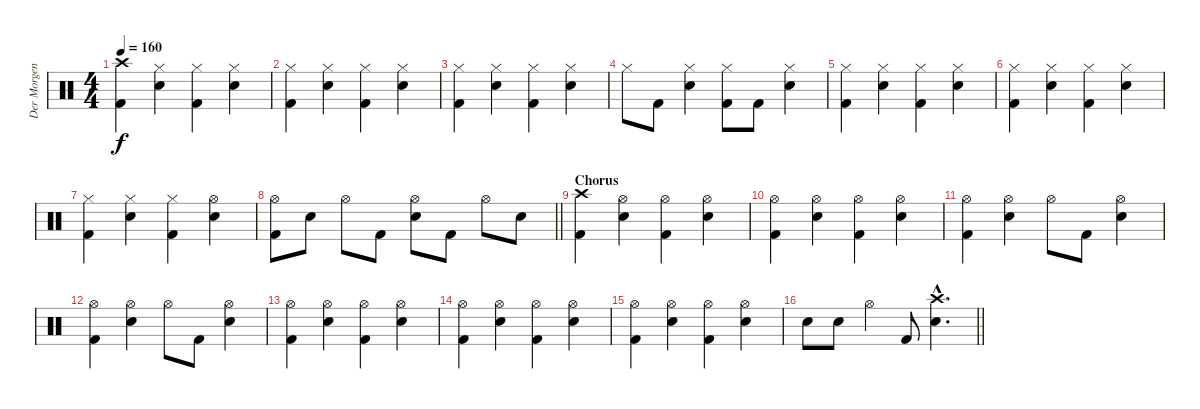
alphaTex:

\track ("Der Morgenstern" "Der Morgen") {instrument percussion}
\staff {score}
\articulation defaults
\ts (4 4)
\tempo 160
\clef neutral
\ks c
("Crash high (hit)" "Kick (hit) 2").4{dy f} ("Hi-Hat (closed)" "Electric Snare (hit)").4 ("Hi-Hat (closed)" "Kick (hit) 2").4 ("Hi-Hat (closed)" "Electric Snare (hit)").4 |
("Hi-Hat (closed)" "Kick (hit) 2").4 ("Hi-Hat (closed)" "Electric Snare (hit)").4 ("Hi-Hat (closed)" "Kick (hit) 2").4 ("Hi-Hat (closed)" "Electric Snare (hit)").4 |
("Hi-Hat (closed)" "Kick (hit) 2").4 ("Hi-Hat (closed)" "Electric Snare (hit)").4 ("Hi-Hat (closed)" "Kick (hit) 2").4 ("Hi-Hat (closed)" "Electric Snare (hit)").4 |
"Hi-Hat (closed)".8 "Kick (hit) 2".8 ("Hi-Hat (closed)" "Electric Snare (hit)").4 ("Hi-Hat (closed)" "Kick (hit) 2").8 "Kick (hit) 2".8 ("Hi-Hat (closed)" "Electric Snare (hit)").4 |
("Hi-Hat (closed)" "Kick (hit) 2").4 ("Hi-Hat (closed)" "Electric Snare (hit)").4 ("Hi-Hat (closed)" "Kick (hit) 2").4 ("Hi-Hat (closed)" "Electric Snare (hit)").4 |
("Hi-Hat (closed)" "Kick (hit) 2").4 ("Hi-Hat (closed)" "Electric Snare (hit)").4 ("Hi-Hat (closed)" "Kick (hit) 2").4 ("Hi-Hat (closed)" "Electric Snare (hit)").4 |
("Hi-Hat (closed)" "Kick (hit) 2").4 ("Hi-Hat (closed)" "Electric Snare (hit)").4 ("Hi-Hat (closed)" "Kick (hit) 2").4 ("Hi-Hat (open)" "Electric Snare (hit)").4 |
\barLineRight lightlight
("Hi-Hat (open)" "Kick (hit) 2").8 "Electric Snare (hit)".8 "Hi-Hat (open)".8 "Kick (hit) 2".8 ("Hi-Hat (open)" "Electric Snare (hit)").8 "Kick (hit) 2".8 "Hi-Hat (open)".8 "Electric Snare (hit)".8 |
\section ("" "Chorus")
("Crash high (hit)" "Kick (hit) 2").4 ("Hi-Hat (open)" "Electric Snare (hit)").4 ("Hi-Hat (open)" "Kick (hit) 2").4 ("Hi-Hat (open)" "Electric Snare (hit)").4 |
("Hi-Hat (open)" "Kick (hit) 2").4 ("Hi-Hat (open)" "Electric Snare (hit)").4 ("Hi-Hat (open)" "Kick (hit) 2").4 ("Hi-Hat (open)" "Electric Snare (hit)").4 |
("Hi-Hat (open)" "Kick (hit) 2").4 ("Hi-Hat (open)" "Electric Snare (hit)").4 "Hi-Hat (open)".8 "Kick (hit) 2".8 ("Hi-Hat (open)" "Electric Snare (hit)").4 |
("Hi-Hat (open)" "Kick (hit) 2").4 ("Hi-Hat (open)" "Electric Snare (hit)").4 "Hi-Hat (open)".8 "Kick (hit) 2".8 ("Hi-Hat (open)" "Electric Snare (hit)").4 |
("Hi-Hat (open)" "Kick (hit) 2").4 ("Hi-Hat (open)" "Electric Snare (hit)").4 ("Hi-Hat (open)" "Kick (hit) 2").4 ("Hi-Hat (open)" "Electric Snare (hit)").4 |
("Hi-Hat (open)" "Kick (hit) 2").4 ("Hi-Hat (open)" "Electric Snare (hit)").4 ("Hi-Hat (open)" "Kick (hit) 2").4 ("Hi-Hat (open)" "Electric Snare (hit)").4 |
("Hi-Hat (open)" "Kick (hit) 2").4 ("Hi-Hat (open)" "Electric Snare (hit)").4 ("Hi-Hat (open)" "Kick (hit) 2").4 ("Hi-Hat (open)" "Electric Snare (hit)").4 |
\barLineRight lightlight "Electric Snare (hit)".8 "Electric Snare (hit)".8 "Hi-Hat (open)".4 "Kick (hit) 2".8
("Crash high (hit)"{hac} "Electric Snare (hit)"{hac}).4{d}
